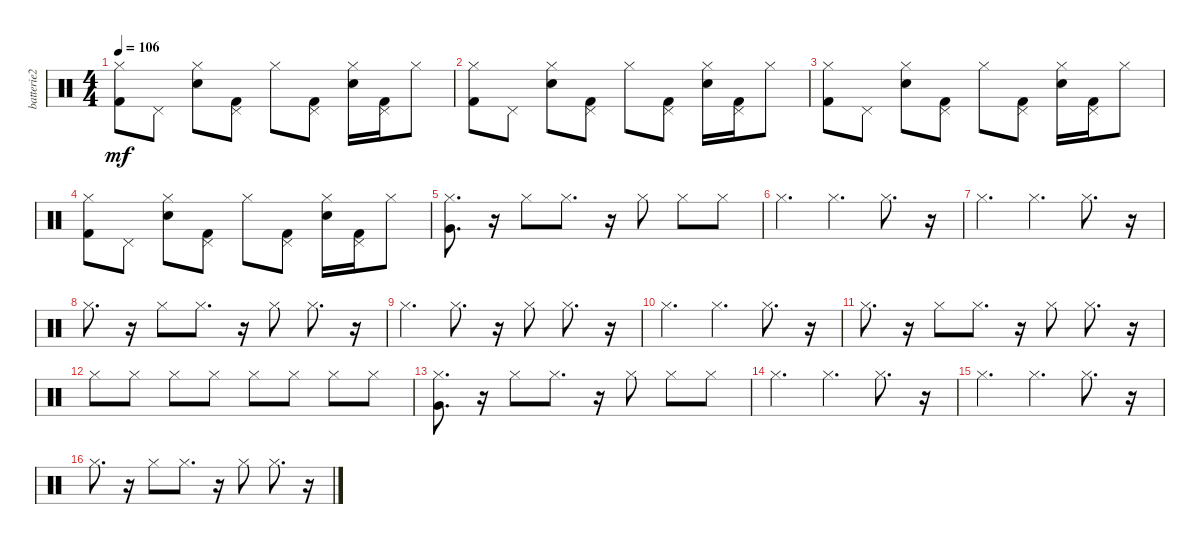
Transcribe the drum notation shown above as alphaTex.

\track ("batterie2" "batterie2") {instrument percussion}
\staff {score}
\articulation defaults
\ts (4 4)
\tempo 106
\clef neutral
\ks c
("Kick (hit) 2" "Hi-Hat (closed)").8{dy mf} "Pedal Hi-Hat (hit)".8 ("Snare (hit) 2" "Hi-Hat (closed)").8 ("Kick (hit) 2" "Pedal Hi-Hat (hit)").8 "Hi-Hat (closed)".8 ("Kick (hit) 2" "Pedal Hi-Hat (hit)").8 ("Snare (hit) 2" "Hi-Hat (closed)").16 ("Kick (hit) 2" "Pedal Hi-Hat (hit)").16 "Hi-Hat (closed)".8 |
("Kick (hit) 2" "Hi-Hat (closed)").8 "Pedal Hi-Hat (hit)".8 ("Snare (hit) 2" "Hi-Hat (closed)").8 ("Kick (hit) 2" "Pedal Hi-Hat (hit)").8 "Hi-Hat (closed)".8 ("Kick (hit) 2" "Pedal Hi-Hat (hit)").8 ("Snare (hit) 2" "Hi-Hat (closed)").16 ("Kick (hit) 2" "Pedal Hi-Hat (hit)").16 "Hi-Hat (closed)".8 |
("Kick (hit) 2" "Hi-Hat (closed)").8 "Pedal Hi-Hat (hit)".8 ("Snare (hit) 2" "Hi-Hat (closed)").8 ("Kick (hit) 2" "Pedal Hi-Hat (hit)").8 "Hi-Hat (closed)".8 ("Kick (hit) 2" "Pedal Hi-Hat (hit)").8 ("Snare (hit) 2" "Hi-Hat (closed)").16 ("Kick (hit) 2" "Pedal Hi-Hat (hit)").16 "Hi-Hat (closed)".8 |
("Kick (hit) 2" "Hi-Hat (closed)").8 "Pedal Hi-Hat (hit)".8 ("Snare (hit) 2" "Hi-Hat (closed)").8 ("Kick (hit) 2" "Pedal Hi-Hat (hit)").8 "Hi-Hat (closed)".8 ("Kick (hit) 2" "Pedal Hi-Hat (hit)").8 ("Snare (hit) 2" "Hi-Hat (closed)").16 ("Kick (hit) 2" "Pedal Hi-Hat (hit)").16 "Hi-Hat (closed)".8 |
("Hi-Hat (closed)" "Very Low Tom (hit)").8{d} r.16 "Hi-Hat (closed)".8 "Hi-Hat (closed)".8{d} r.16 "Hi-Hat (closed)".8 "Hi-Hat (closed)".8 "Hi-Hat (closed)".8 |
"Hi-Hat (closed)".4{d} "Hi-Hat (closed)".4{d} "Hi-Hat (closed)".8{d} r.16 |
"Hi-Hat (closed)".4{d} "Hi-Hat (closed)".4{d} "Hi-Hat (closed)".8{d} r.16 |
"Hi-Hat (closed)".8{d} r.16 "Hi-Hat (closed)".8 "Hi-Hat (closed)".8{d} r.16 "Hi-Hat (closed)".8 "Hi-Hat (closed)".8{d} r.16 |
"Hi-Hat (closed)".4{d} "Hi-Hat (closed)".8{d} r.16 "Hi-Hat (closed)".8 "Hi-Hat (closed)".8{d} r.16 |
"Hi-Hat (closed)".4{d} "Hi-Hat (closed)".4{d} "Hi-Hat (closed)".8{d} r.16 |
"Hi-Hat (closed)".8{d} r.16 "Hi-Hat (closed)".8 "Hi-Hat (closed)".8{d} r.16 "Hi-Hat (closed)".8 "Hi-Hat (closed)".8{d} r.16 |
"Hi-Hat (closed)".8 "Hi-Hat (closed)".8 "Hi-Hat (closed)".8 "Hi-Hat (closed)".8 "Hi-Hat (closed)".8 "Hi-Hat (closed)".8 "Hi-Hat (closed)".8 "Hi-Hat (closed)".8 |
("Hi-Hat (closed)" "Very Low Tom (hit)").8{d} r.16 "Hi-Hat (closed)".8 "Hi-Hat (closed)".8{d} r.16 "Hi-Hat (closed)".8 "Hi-Hat (closed)".8 "Hi-Hat (closed)".8 |
"Hi-Hat (closed)".4{d} "Hi-Hat (closed)".4{d} "Hi-Hat (closed)".8{d} r.16 |
"Hi-Hat (closed)".4{d} "Hi-Hat (closed)".4{d} "Hi-Hat (closed)".8{d} r.16 |
"Hi-Hat (closed)".8{d} r.16 "Hi-Hat (closed)".8 "Hi-Hat (closed)".8{d} r.16 "Hi-Hat (closed)".8 "Hi-Hat (closed)".8{d} r.16
